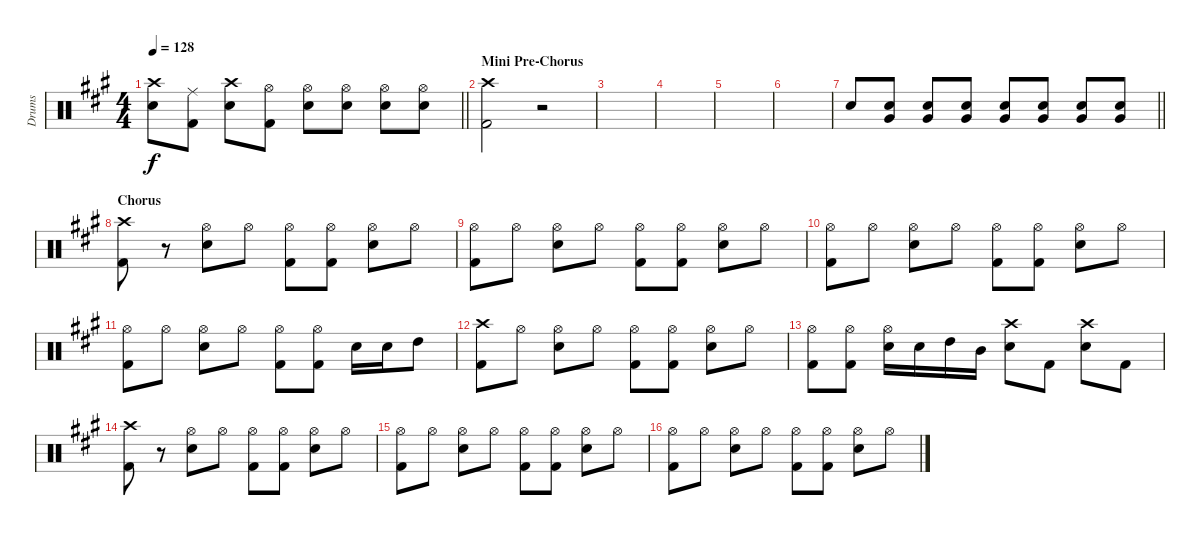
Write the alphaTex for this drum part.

\track ("Drums" "Drums") {instrument percussion}
\staff {score}
\articulation defaults
\ts (4 4)
\tempo 128
\clef neutral
\barLineRight lightlight
\ks a
("Crash high (hit)" "Snare (hit) 2").8{dy f} ("Ride (middle)" "Kick (hit) 2").8 ("Crash high (hit)" "Snare (hit) 2").8 ("Hi-Hat (open)" "Kick (hit) 2").8 ("Hi-Hat (open)" "Snare (hit) 2").8 ("Hi-Hat (open)" "Snare (hit) 2").8 ("Hi-Hat (open)" "Snare (hit) 2").8 ("Hi-Hat (open)" "Snare (hit) 2").8 |
\section ("" "Mini Pre-Chorus")
("Crash high (hit)" "Kick (hit) 2").2 r.2 |
|
|
|
|
\barLineRight lightlight "Snare (hit) 2".8
("Snare (hit) 2" "Very Low Tom (hit)").8 ("Snare (hit) 2" "Very Low Tom (hit)").8 ("Snare (hit) 2" "Very Low Tom (hit)").8 ("Snare (hit) 2" "Very Low Tom (hit)").8 ("Snare (hit) 2" "Very Low Tom (hit)").8 ("Snare (hit) 2" "Very Low Tom (hit)").8 ("Snare (hit) 2" "Very Low Tom (hit)").8 |
\section ("" "Chorus")
("Crash high (hit)" "Kick (hit) 2").8 r.8 ("Hi-Hat (open)" "Snare (hit) 2").8 "Hi-Hat (open)".8 ("Hi-Hat (open)" "Kick (hit) 2").8 ("Hi-Hat (open)" "Kick (hit) 2").8 ("Hi-Hat (open)" "Snare (hit) 2").8 "Hi-Hat (open)".8 |
("Hi-Hat (open)" "Kick (hit) 2").8 "Hi-Hat (open)".8 ("Hi-Hat (open)" "Snare (hit) 2").8 "Hi-Hat (open)".8 ("Hi-Hat (open)" "Kick (hit) 2").8 ("Hi-Hat (open)" "Kick (hit) 2").8 ("Hi-Hat (open)" "Snare (hit) 2").8 "Hi-Hat (open)".8 |
("Hi-Hat (open)" "Kick (hit) 2").8 "Hi-Hat (open)".8 ("Hi-Hat (open)" "Snare (hit) 2").8 "Hi-Hat (open)".8 ("Hi-Hat (open)" "Kick (hit) 2").8 ("Hi-Hat (open)" "Kick (hit) 2").8 ("Hi-Hat (open)" "Snare (hit) 2").8 "Hi-Hat (open)".8 |
("Hi-Hat (open)" "Kick (hit) 2").8 "Hi-Hat (open)".8 ("Hi-Hat (open)" "Snare (hit) 2").8 "Hi-Hat (open)".8 ("Hi-Hat (open)" "Kick (hit) 2").8 ("Hi-Hat (open)" "Kick (hit) 2").8 "Snare (hit) 2".16 "Snare (hit) 2".16 "High Tom (hit)".8 |
("Crash high (hit)" "Kick (hit) 2").8 "Hi-Hat (open)".8 ("Hi-Hat (open)" "Snare (hit) 2").8 "Hi-Hat (open)".8 ("Hi-Hat (open)" "Kick (hit) 2").8 ("Hi-Hat (open)" "Kick (hit) 2").8 ("Hi-Hat (open)" "Snare (hit) 2").8 "Hi-Hat (open)".8 |
("Hi-Hat (open)" "Kick (hit) 2").8 ("Hi-Hat (open)" "Kick (hit) 2").8 ("Hi-Hat (open)" "Snare (hit) 2").16 "Snare (hit) 2".16 "High Tom (hit)".16 "Mid Tom (hit)".16 ("Crash high (hit)" "Snare (hit) 2").8 "Kick (hit) 2".8 ("Crash high (hit)" "Snare (hit) 2").8 "Kick (hit) 2".8 |
("Crash high (hit)" "Kick (hit) 2").8 r.8 ("Hi-Hat (open)" "Snare (hit) 2").8 "Hi-Hat (open)".8 ("Hi-Hat (open)" "Kick (hit) 2").8 ("Hi-Hat (open)" "Kick (hit) 2").8 ("Hi-Hat (open)" "Snare (hit) 2").8 "Hi-Hat (open)".8 |
("Hi-Hat (open)" "Kick (hit) 2").8 "Hi-Hat (open)".8 ("Hi-Hat (open)" "Snare (hit) 2").8 "Hi-Hat (open)".8 ("Hi-Hat (open)" "Kick (hit) 2").8 ("Hi-Hat (open)" "Kick (hit) 2").8 ("Hi-Hat (open)" "Snare (hit) 2").8 "Hi-Hat (open)".8 |
("Hi-Hat (open)" "Kick (hit) 2").8 "Hi-Hat (open)".8 ("Hi-Hat (open)" "Snare (hit) 2").8 "Hi-Hat (open)".8 ("Hi-Hat (open)" "Kick (hit) 2").8 ("Hi-Hat (open)" "Kick (hit) 2").8 ("Hi-Hat (open)" "Snare (hit) 2").8 "Hi-Hat (open)".8
